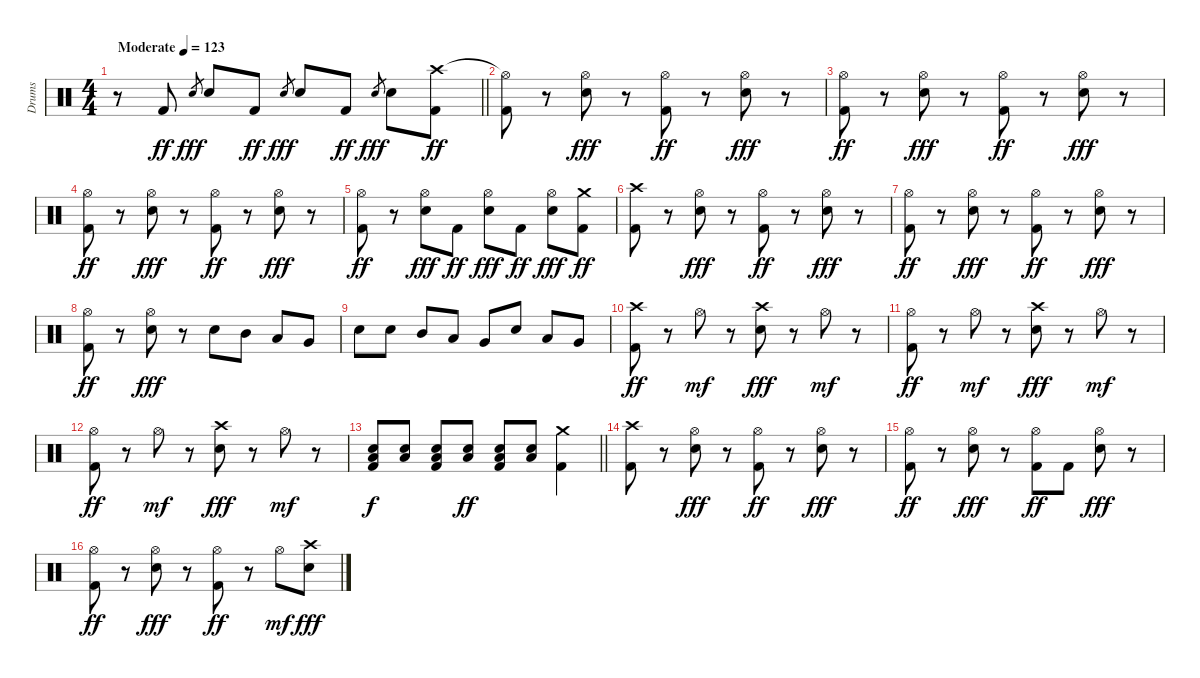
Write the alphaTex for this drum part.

\track ("Drums" "Drums") {instrument percussion}
\staff {score}
\articulation defaults
\ts (4 4)
\tempo (123 "Moderate")
\clef neutral
\barLineRight lightlight
\ks c
r.8{dy ff} "Kick (hit) 2".8 "Electric Snare (hit)".8{gr dy fff} "Electric Snare (hit)".8 "Kick (hit) 2".8{dy ff} "Electric Snare (hit)".8{gr dy fff} "Electric Snare (hit)".8 "Kick (hit) 2".8{dy ff} "Electric Snare (hit)".8{gr dy fff} "Electric Snare (hit)".8 ("Crash high (hit)" "Kick (hit) 2").8{dy ff} |
("Hi-Hat (open)"{t} "Kick (hit) 2").8 r.8 ("Hi-Hat (open)" "Electric Snare (hit)").8{dy fff} r.8 ("Hi-Hat (open)" "Kick (hit) 2").8{dy ff} r.8 ("Hi-Hat (open)" "Electric Snare (hit)").8{dy fff} r.8 |
("Hi-Hat (open)" "Kick (hit) 2").8{dy ff} r.8 ("Hi-Hat (open)" "Electric Snare (hit)").8{dy fff} r.8 ("Hi-Hat (open)" "Kick (hit) 2").8{dy ff} r.8 ("Hi-Hat (open)" "Electric Snare (hit)").8{dy fff} r.8 |
("Hi-Hat (open)" "Kick (hit) 2").8{dy ff} r.8 ("Hi-Hat (open)" "Electric Snare (hit)").8{dy fff} r.8 ("Hi-Hat (open)" "Kick (hit) 2").8{dy ff} r.8 ("Hi-Hat (open)" "Electric Snare (hit)").8{dy fff} r.8 |
("Hi-Hat (open)" "Kick (hit) 2").8{dy ff} r.8 ("Hi-Hat (open)" "Electric Snare (hit)").8{dy fff} "Kick (hit) 2".8{dy ff} ("Hi-Hat (open)" "Electric Snare (hit)").8{dy fff} "Kick (hit) 2".8{dy ff} ("Hi-Hat (open)" "Electric Snare (hit)").8{dy fff} ("Crash medium (hit)" "Kick (hit) 2").8{dy ff} |
("Crash high (hit)" "Kick (hit) 2").8 r.8 ("Hi-Hat (open)" "Electric Snare (hit)").8{dy fff} r.8 ("Hi-Hat (open)" "Kick (hit) 2").8{dy ff} r.8 ("Hi-Hat (open)" "Electric Snare (hit)").8{dy fff} r.8 |
("Hi-Hat (open)" "Kick (hit) 2").8{dy ff} r.8 ("Hi-Hat (open)" "Electric Snare (hit)").8{dy fff} r.8 ("Hi-Hat (open)" "Kick (hit) 2").8{dy ff} r.8 ("Hi-Hat (open)" "Electric Snare (hit)").8{dy fff} r.8 |
("Hi-Hat (open)" "Kick (hit) 2").8{dy ff} r.8 ("Hi-Hat (open)" "Electric Snare (hit)").8{dy fff} r.8 "Electric Snare (hit)".8 "Mid Tom (hit)".8 "Low Tom (hit)".8 "Very Low Tom (hit)".8 |
"Electric Snare (hit)".8 "Electric Snare (hit)".8 "Mid Tom (hit)".8 "Low Tom (hit)".8 "Very Low Tom (hit)".8 "Electric Snare (hit)".8 "Low Tom (hit)".8 "Very Low Tom (hit)".8 |
("Crash high (hit)" "Kick (hit) 2").8{dy ff} r.8 "Hi-Hat (open)".8{dy mf} r.8 ("Crash high (hit)" "Electric Snare (hit)").8{dy fff} r.8 "Hi-Hat (open)".8{dy mf} r.8 |
("Hi-Hat (open)" "Kick (hit) 2").8{dy ff} r.8 "Hi-Hat (open)".8{dy mf} r.8 ("Crash high (hit)" "Electric Snare (hit)").8{dy fff} r.8 "Hi-Hat (open)".8{dy mf} r.8 |
("Hi-Hat (open)" "Kick (hit) 2").8{dy ff} r.8 "Hi-Hat (open)".8{dy mf} r.8 ("Crash high (hit)" "Electric Snare (hit)").8{dy fff} r.8 "Hi-Hat (open)".8{dy mf} r.8 |
\barLineRight lightlight
("Low Floor Tom (hit)" "Electric Snare (hit)" "Kick (hit) 2").8{dy f} ("Low Floor Tom (hit)" "Electric Snare (hit)").8 ("Low Floor Tom (hit)" "Electric Snare (hit)" "Kick (hit) 2").8 ("Low Floor Tom (hit)" "Electric Snare (hit)").8{dy ff} ("Low Floor Tom (hit)" "Electric Snare (hit)" "Kick (hit) 2").8 ("Low Floor Tom (hit)" "Electric Snare (hit)").8 ("Crash medium (hit)" "Kick (hit) 2").4 |
("Crash high (hit)" "Kick (hit) 2").8 r.8 ("Hi-Hat (open)" "Electric Snare (hit)").8{dy fff} r.8 ("Hi-Hat (open)" "Kick (hit) 2").8{dy ff} r.8 ("Hi-Hat (open)" "Electric Snare (hit)").8{dy fff} r.8 |
("Hi-Hat (open)" "Kick (hit) 2").8{dy ff} r.8 ("Hi-Hat (open)" "Electric Snare (hit)").8{dy fff} r.8 ("Hi-Hat (open)" "Kick (hit) 2").8{dy ff} "Kick (hit) 2".8 ("Hi-Hat (open)" "Electric Snare (hit)").8{dy fff} r.8 |
("Hi-Hat (open)" "Kick (hit) 2").8{dy ff} r.8 ("Hi-Hat (open)" "Electric Snare (hit)").8{dy fff} r.8 ("Hi-Hat (open)" "Kick (hit) 2").8{dy ff} r.8 "Hi-Hat (open)".8{dy mf} ("Crash high (hit)" "Electric Snare (hit)").8{dy fff}
